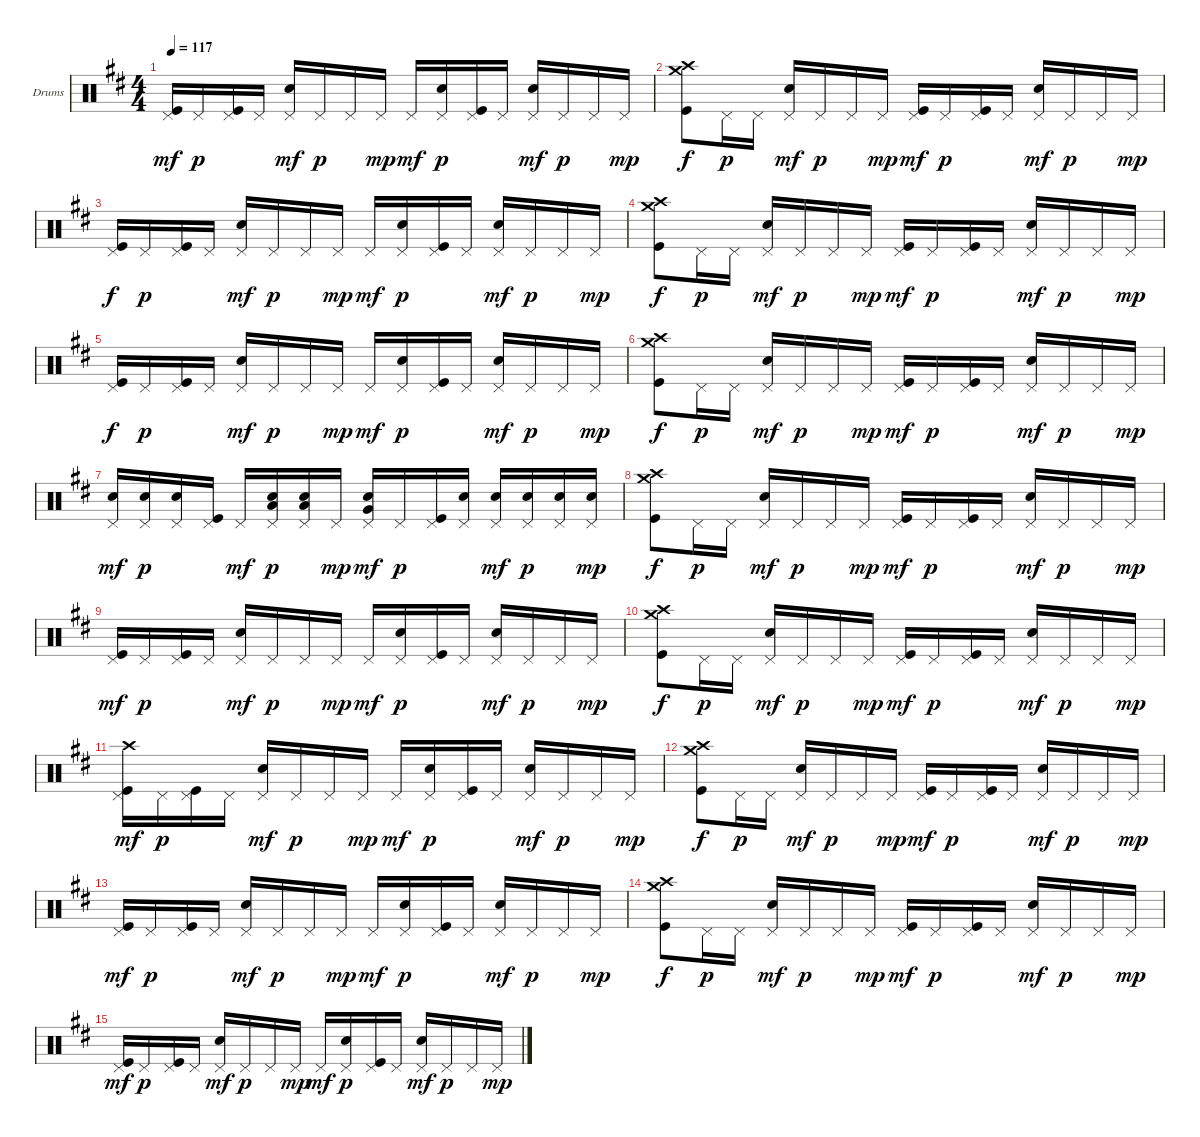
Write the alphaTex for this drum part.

\bracketExtendMode groupsimilarinstruments
\firstSystemTrackNameOrientation horizontal
\otherSystemsTrackNameOrientation horizontal
\track ("Drumkit" "Drums") {instrument percussion}
\staff {score}
\articulation defaults
\ts (4 4)
\tempo 117
\clef neutral
\ks d
("Pedal Hi-Hat (hit)" "Kick (hit)").16{dy mf} "Pedal Hi-Hat (hit)".16{dy p} ("Pedal Hi-Hat (hit)" "Kick (hit)").16 "Pedal Hi-Hat (hit)".16 ("Pedal Hi-Hat (hit)" "Snare (hit) 2").16{dy mf} "Pedal Hi-Hat (hit)".16{dy p} "Pedal Hi-Hat (hit)".16 "Pedal Hi-Hat (hit)".16{dy mp} "Pedal Hi-Hat (hit)".16{dy mf} ("Pedal Hi-Hat (hit)" "Snare (hit) 2").16{dy p} ("Pedal Hi-Hat (hit)" "Kick (hit)").16 "Pedal Hi-Hat (hit)".16 ("Pedal Hi-Hat (hit)" "Snare (hit) 2").16{dy mf} "Pedal Hi-Hat (hit)".16{dy p} "Pedal Hi-Hat (hit)".16 "Pedal Hi-Hat (hit)".16{dy mp} |
("Crash high (hit)" "Crash medium (hit)" "Kick (hit)").8{dy f} "Pedal Hi-Hat (hit)".16{dy p} "Pedal Hi-Hat (hit)".16 ("Pedal Hi-Hat (hit)" "Snare (hit) 2").16{dy mf} "Pedal Hi-Hat (hit)".16{dy p} "Pedal Hi-Hat (hit)".16 "Pedal Hi-Hat (hit)".16{dy mp} ("Pedal Hi-Hat (hit)" "Kick (hit)").16{dy mf} "Pedal Hi-Hat (hit)".16{dy p} ("Pedal Hi-Hat (hit)" "Kick (hit)").16 "Pedal Hi-Hat (hit)".16 ("Pedal Hi-Hat (hit)" "Snare (hit) 2").16{dy mf} "Pedal Hi-Hat (hit)".16{dy p} "Pedal Hi-Hat (hit)".16 "Pedal Hi-Hat (hit)".16{dy mp} |
("Pedal Hi-Hat (hit)" "Kick (hit)").16{dy f} "Pedal Hi-Hat (hit)".16{dy p} ("Pedal Hi-Hat (hit)" "Kick (hit)").16 "Pedal Hi-Hat (hit)".16 ("Pedal Hi-Hat (hit)" "Snare (hit) 2").16{dy mf} "Pedal Hi-Hat (hit)".16{dy p} "Pedal Hi-Hat (hit)".16 "Pedal Hi-Hat (hit)".16{dy mp} "Pedal Hi-Hat (hit)".16{dy mf} ("Pedal Hi-Hat (hit)" "Snare (hit) 2").16{dy p} ("Pedal Hi-Hat (hit)" "Kick (hit)").16 "Pedal Hi-Hat (hit)".16 ("Pedal Hi-Hat (hit)" "Snare (hit) 2").16{dy mf} "Pedal Hi-Hat (hit)".16{dy p} "Pedal Hi-Hat (hit)".16 "Pedal Hi-Hat (hit)".16{dy mp} |
("Crash high (hit)" "Crash medium (hit)" "Kick (hit)").8{dy f} "Pedal Hi-Hat (hit)".16{dy p} "Pedal Hi-Hat (hit)".16 ("Pedal Hi-Hat (hit)" "Snare (hit) 2").16{dy mf} "Pedal Hi-Hat (hit)".16{dy p} "Pedal Hi-Hat (hit)".16 "Pedal Hi-Hat (hit)".16{dy mp} ("Pedal Hi-Hat (hit)" "Kick (hit)").16{dy mf} "Pedal Hi-Hat (hit)".16{dy p} ("Pedal Hi-Hat (hit)" "Kick (hit)").16 "Pedal Hi-Hat (hit)".16 ("Pedal Hi-Hat (hit)" "Snare (hit) 2").16{dy mf} "Pedal Hi-Hat (hit)".16{dy p} "Pedal Hi-Hat (hit)".16 "Pedal Hi-Hat (hit)".16{dy mp} |
("Pedal Hi-Hat (hit)" "Kick (hit)").16{dy f} "Pedal Hi-Hat (hit)".16{dy p} ("Pedal Hi-Hat (hit)" "Kick (hit)").16 "Pedal Hi-Hat (hit)".16 ("Pedal Hi-Hat (hit)" "Snare (hit) 2").16{dy mf} "Pedal Hi-Hat (hit)".16{dy p} "Pedal Hi-Hat (hit)".16 "Pedal Hi-Hat (hit)".16{dy mp} "Pedal Hi-Hat (hit)".16{dy mf} ("Pedal Hi-Hat (hit)" "Snare (hit) 2").16{dy p} ("Pedal Hi-Hat (hit)" "Kick (hit)").16 "Pedal Hi-Hat (hit)".16 ("Pedal Hi-Hat (hit)" "Snare (hit) 2").16{dy mf} "Pedal Hi-Hat (hit)".16{dy p} "Pedal Hi-Hat (hit)".16 "Pedal Hi-Hat (hit)".16{dy mp} |
("Crash high (hit)" "Crash medium (hit)" "Kick (hit)").8{dy f} "Pedal Hi-Hat (hit)".16{dy p} "Pedal Hi-Hat (hit)".16 ("Pedal Hi-Hat (hit)" "Snare (hit) 2").16{dy mf} "Pedal Hi-Hat (hit)".16{dy p} "Pedal Hi-Hat (hit)".16 "Pedal Hi-Hat (hit)".16{dy mp} ("Pedal Hi-Hat (hit)" "Kick (hit)").16{dy mf} "Pedal Hi-Hat (hit)".16{dy p} ("Pedal Hi-Hat (hit)" "Kick (hit)").16 "Pedal Hi-Hat (hit)".16 ("Pedal Hi-Hat (hit)" "Snare (hit) 2").16{dy mf} "Pedal Hi-Hat (hit)".16{dy p} "Pedal Hi-Hat (hit)".16 "Pedal Hi-Hat (hit)".16{dy mp} |
("Pedal Hi-Hat (hit)" "Snare (hit) 2").16{dy mf} ("Pedal Hi-Hat (hit)" "Snare (hit) 2").16{dy p} ("Pedal Hi-Hat (hit)" "Snare (hit) 2").16 ("Pedal Hi-Hat (hit)" "Kick (hit)").16 "Pedal Hi-Hat (hit)".16{dy mf} ("Pedal Hi-Hat (hit)" "Snare (hit) 2" "Low Tom (hit)").16{dy p} ("Pedal Hi-Hat (hit)" "Snare (hit) 2" "Low Tom (hit)").16 "Pedal Hi-Hat (hit)".16{dy mp} ("Pedal Hi-Hat (hit)" "Snare (hit) 2" "Very Low Tom (hit)").16{dy mf} "Pedal Hi-Hat (hit)".16{dy p} ("Pedal Hi-Hat (hit)" "Kick (hit)").16 ("Pedal Hi-Hat (hit)" "Snare (hit) 2").16 ("Pedal Hi-Hat (hit)" "Snare (hit) 2").16{dy mf} ("Pedal Hi-Hat (hit)" "Snare (hit) 2").16{dy p} ("Pedal Hi-Hat (hit)" "Snare (hit) 2").16 ("Pedal Hi-Hat (hit)" "Snare (hit) 2").16{dy mp} |
("Crash medium (hit)" "Crash high (hit)" "Kick (hit)").8{dy f} "Pedal Hi-Hat (hit)".16{dy p} "Pedal Hi-Hat (hit)".16 ("Pedal Hi-Hat (hit)" "Snare (hit) 2").16{dy mf} "Pedal Hi-Hat (hit)".16{dy p} "Pedal Hi-Hat (hit)".16 "Pedal Hi-Hat (hit)".16{dy mp} ("Pedal Hi-Hat (hit)" "Kick (hit)").16{dy mf} "Pedal Hi-Hat (hit)".16{dy p} ("Pedal Hi-Hat (hit)" "Kick (hit)").16 "Pedal Hi-Hat (hit)".16 ("Pedal Hi-Hat (hit)" "Snare (hit) 2").16{dy mf} "Pedal Hi-Hat (hit)".16{dy p} "Pedal Hi-Hat (hit)".16 "Pedal Hi-Hat (hit)".16{dy mp} |
("Pedal Hi-Hat (hit)" "Kick (hit)").16{dy mf} "Pedal Hi-Hat (hit)".16{dy p} ("Pedal Hi-Hat (hit)" "Kick (hit)").16 "Pedal Hi-Hat (hit)".16 ("Pedal Hi-Hat (hit)" "Snare (hit) 2").16{dy mf} "Pedal Hi-Hat (hit)".16{dy p} "Pedal Hi-Hat (hit)".16 "Pedal Hi-Hat (hit)".16{dy mp} "Pedal Hi-Hat (hit)".16{dy mf} ("Pedal Hi-Hat (hit)" "Snare (hit) 2").16{dy p} ("Pedal Hi-Hat (hit)" "Kick (hit)").16 "Pedal Hi-Hat (hit)".16 ("Pedal Hi-Hat (hit)" "Snare (hit) 2").16{dy mf} "Pedal Hi-Hat (hit)".16{dy p} "Pedal Hi-Hat (hit)".16 "Pedal Hi-Hat (hit)".16{dy mp} |
("Crash high (hit)" "Crash medium (hit)" "Kick (hit)").8{dy f} "Pedal Hi-Hat (hit)".16{dy p} "Pedal Hi-Hat (hit)".16 ("Pedal Hi-Hat (hit)" "Snare (hit) 2").16{dy mf} "Pedal Hi-Hat (hit)".16{dy p} "Pedal Hi-Hat (hit)".16 "Pedal Hi-Hat (hit)".16{dy mp} ("Pedal Hi-Hat (hit)" "Kick (hit)").16{dy mf} "Pedal Hi-Hat (hit)".16{dy p} ("Pedal Hi-Hat (hit)" "Kick (hit)").16 "Pedal Hi-Hat (hit)".16 ("Pedal Hi-Hat (hit)" "Snare (hit) 2").16{dy mf} "Pedal Hi-Hat (hit)".16{dy p} "Pedal Hi-Hat (hit)".16 "Pedal Hi-Hat (hit)".16{dy mp} |
("Crash high (hit)" "Pedal Hi-Hat (hit)" "Kick (hit)").16{dy mf} "Pedal Hi-Hat (hit)".16{dy p} ("Pedal Hi-Hat (hit)" "Kick (hit)").16 "Pedal Hi-Hat (hit)".16 ("Pedal Hi-Hat (hit)" "Snare (hit) 2").16{dy mf} "Pedal Hi-Hat (hit)".16{dy p} "Pedal Hi-Hat (hit)".16 "Pedal Hi-Hat (hit)".16{dy mp} "Pedal Hi-Hat (hit)".16{dy mf} ("Pedal Hi-Hat (hit)" "Snare (hit) 2").16{dy p} ("Pedal Hi-Hat (hit)" "Kick (hit)").16 "Pedal Hi-Hat (hit)".16 ("Pedal Hi-Hat (hit)" "Snare (hit) 2").16{dy mf} "Pedal Hi-Hat (hit)".16{dy p} "Pedal Hi-Hat (hit)".16 "Pedal Hi-Hat (hit)".16{dy mp} |
("Crash high (hit)" "Crash medium (hit)" "Kick (hit)").8{dy f} "Pedal Hi-Hat (hit)".16{dy p} "Pedal Hi-Hat (hit)".16 ("Pedal Hi-Hat (hit)" "Snare (hit) 2").16{dy mf} "Pedal Hi-Hat (hit)".16{dy p} "Pedal Hi-Hat (hit)".16 "Pedal Hi-Hat (hit)".16{dy mp} ("Pedal Hi-Hat (hit)" "Kick (hit)").16{dy mf} "Pedal Hi-Hat (hit)".16{dy p} ("Pedal Hi-Hat (hit)" "Kick (hit)").16 "Pedal Hi-Hat (hit)".16 ("Pedal Hi-Hat (hit)" "Snare (hit) 2").16{dy mf} "Pedal Hi-Hat (hit)".16{dy p} "Pedal Hi-Hat (hit)".16 "Pedal Hi-Hat (hit)".16{dy mp} |
("Pedal Hi-Hat (hit)" "Kick (hit)").16{dy mf} "Pedal Hi-Hat (hit)".16{dy p} ("Pedal Hi-Hat (hit)" "Kick (hit)").16 "Pedal Hi-Hat (hit)".16 ("Pedal Hi-Hat (hit)" "Snare (hit) 2").16{dy mf} "Pedal Hi-Hat (hit)".16{dy p} "Pedal Hi-Hat (hit)".16 "Pedal Hi-Hat (hit)".16{dy mp} "Pedal Hi-Hat (hit)".16{dy mf} ("Pedal Hi-Hat (hit)" "Snare (hit) 2").16{dy p} ("Pedal Hi-Hat (hit)" "Kick (hit)").16 "Pedal Hi-Hat (hit)".16 ("Pedal Hi-Hat (hit)" "Snare (hit) 2").16{dy mf} "Pedal Hi-Hat (hit)".16{dy p} "Pedal Hi-Hat (hit)".16 "Pedal Hi-Hat (hit)".16{dy mp} |
("Crash high (hit)" "Crash medium (hit)" "Kick (hit)").8{dy f} "Pedal Hi-Hat (hit)".16{dy p} "Pedal Hi-Hat (hit)".16 ("Pedal Hi-Hat (hit)" "Snare (hit) 2").16{dy mf} "Pedal Hi-Hat (hit)".16{dy p} "Pedal Hi-Hat (hit)".16 "Pedal Hi-Hat (hit)".16{dy mp} ("Pedal Hi-Hat (hit)" "Kick (hit)").16{dy mf} "Pedal Hi-Hat (hit)".16{dy p} ("Pedal Hi-Hat (hit)" "Kick (hit)").16 "Pedal Hi-Hat (hit)".16 ("Pedal Hi-Hat (hit)" "Snare (hit) 2").16{dy mf} "Pedal Hi-Hat (hit)".16{dy p} "Pedal Hi-Hat (hit)".16 "Pedal Hi-Hat (hit)".16{dy mp} |
("Pedal Hi-Hat (hit)" "Kick (hit)").16{dy mf} "Pedal Hi-Hat (hit)".16{dy p} ("Pedal Hi-Hat (hit)" "Kick (hit)").16 "Pedal Hi-Hat (hit)".16 ("Pedal Hi-Hat (hit)" "Snare (hit) 2").16{dy mf} "Pedal Hi-Hat (hit)".16{dy p} "Pedal Hi-Hat (hit)".16 "Pedal Hi-Hat (hit)".16{dy mp} "Pedal Hi-Hat (hit)".16{dy mf} ("Pedal Hi-Hat (hit)" "Snare (hit) 2").16{dy p} ("Pedal Hi-Hat (hit)" "Kick (hit)").16 "Pedal Hi-Hat (hit)".16 ("Pedal Hi-Hat (hit)" "Snare (hit) 2").16{dy mf} "Pedal Hi-Hat (hit)".16{dy p} "Pedal Hi-Hat (hit)".16 "Pedal Hi-Hat (hit)".16{dy mp}
